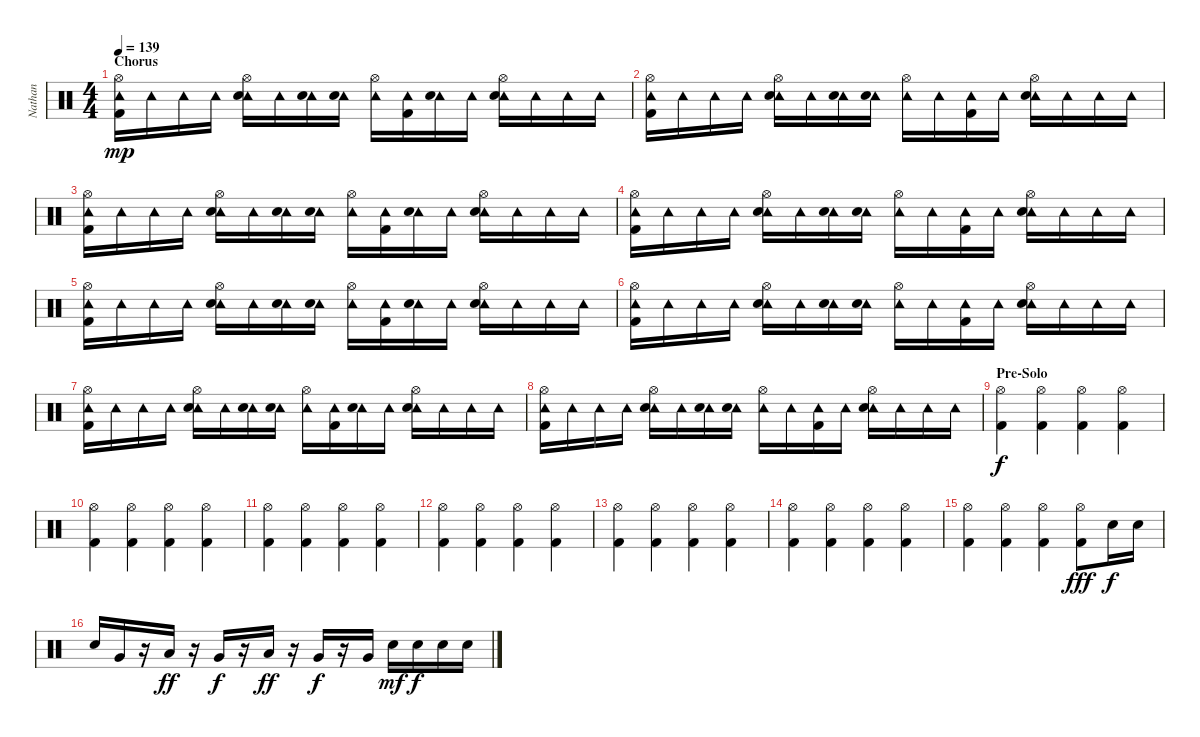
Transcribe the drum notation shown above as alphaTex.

\track ("Nathan" "Nathan") {instrument percussion}
\staff {score}
\articulation defaults
\ts (4 4)
\section ("" "Chorus")
\tempo 139
\clef neutral
\ks c
("Hi-Hat (open)" "Tambourine (hit)" "Kick (hit) 2").16{dy mp} "Tambourine (hit)".16 "Tambourine (hit)".16 "Tambourine (hit)".16 ("Hi-Hat (open)" "Tambourine (hit)" "Electric Snare (hit)").16 "Tambourine (hit)".16 ("Tambourine (hit)" "Electric Snare (hit)").16 ("Tambourine (hit)" "Electric Snare (hit)").16 ("Hi-Hat (open)" "Tambourine (hit)").16 ("Tambourine (hit)" "Kick (hit) 2").16 ("Tambourine (hit)" "Electric Snare (hit)").16 "Tambourine (hit)".16 ("Hi-Hat (open)" "Tambourine (hit)" "Electric Snare (hit)").16 "Tambourine (hit)".16 "Tambourine (hit)".16 "Tambourine (hit)".16 |
("Hi-Hat (open)" "Tambourine (hit)" "Kick (hit) 2").16 "Tambourine (hit)".16 "Tambourine (hit)".16 "Tambourine (hit)".16 ("Hi-Hat (open)" "Tambourine (hit)" "Electric Snare (hit)").16 "Tambourine (hit)".16 ("Tambourine (hit)" "Electric Snare (hit)").16 ("Tambourine (hit)" "Electric Snare (hit)").16 ("Hi-Hat (open)" "Tambourine (hit)").16 "Tambourine (hit)".16 ("Tambourine (hit)" "Kick (hit) 2").16 "Tambourine (hit)".16 ("Hi-Hat (open)" "Tambourine (hit)" "Electric Snare (hit)").16 "Tambourine (hit)".16 "Tambourine (hit)".16 "Tambourine (hit)".16 |
("Hi-Hat (open)" "Tambourine (hit)" "Kick (hit) 2").16 "Tambourine (hit)".16 "Tambourine (hit)".16 "Tambourine (hit)".16 ("Hi-Hat (open)" "Tambourine (hit)" "Electric Snare (hit)").16 "Tambourine (hit)".16 ("Tambourine (hit)" "Electric Snare (hit)").16 ("Tambourine (hit)" "Electric Snare (hit)").16 ("Hi-Hat (open)" "Tambourine (hit)").16 ("Tambourine (hit)" "Kick (hit) 2").16 ("Tambourine (hit)" "Electric Snare (hit)").16 "Tambourine (hit)".16 ("Hi-Hat (open)" "Tambourine (hit)" "Electric Snare (hit)").16 "Tambourine (hit)".16 "Tambourine (hit)".16 "Tambourine (hit)".16 |
("Hi-Hat (open)" "Tambourine (hit)" "Kick (hit) 2").16 "Tambourine (hit)".16 "Tambourine (hit)".16 "Tambourine (hit)".16 ("Hi-Hat (open)" "Tambourine (hit)" "Electric Snare (hit)").16 "Tambourine (hit)".16 ("Tambourine (hit)" "Electric Snare (hit)").16 ("Tambourine (hit)" "Electric Snare (hit)").16 ("Hi-Hat (open)" "Tambourine (hit)").16 "Tambourine (hit)".16 ("Tambourine (hit)" "Kick (hit) 2").16 "Tambourine (hit)".16 ("Hi-Hat (open)" "Tambourine (hit)" "Electric Snare (hit)").16 "Tambourine (hit)".16 "Tambourine (hit)".16 "Tambourine (hit)".16 |
("Hi-Hat (open)" "Tambourine (hit)" "Kick (hit) 2").16 "Tambourine (hit)".16 "Tambourine (hit)".16 "Tambourine (hit)".16 ("Hi-Hat (open)" "Tambourine (hit)" "Electric Snare (hit)").16 "Tambourine (hit)".16 ("Tambourine (hit)" "Electric Snare (hit)").16 ("Tambourine (hit)" "Electric Snare (hit)").16 ("Hi-Hat (open)" "Tambourine (hit)").16 ("Tambourine (hit)" "Kick (hit) 2").16 ("Tambourine (hit)" "Electric Snare (hit)").16 "Tambourine (hit)".16 ("Hi-Hat (open)" "Tambourine (hit)" "Electric Snare (hit)").16 "Tambourine (hit)".16 "Tambourine (hit)".16 "Tambourine (hit)".16 |
("Hi-Hat (open)" "Tambourine (hit)" "Kick (hit) 2").16 "Tambourine (hit)".16 "Tambourine (hit)".16 "Tambourine (hit)".16 ("Hi-Hat (open)" "Tambourine (hit)" "Electric Snare (hit)").16 "Tambourine (hit)".16 ("Tambourine (hit)" "Electric Snare (hit)").16 ("Tambourine (hit)" "Electric Snare (hit)").16 ("Hi-Hat (open)" "Tambourine (hit)").16 "Tambourine (hit)".16 ("Tambourine (hit)" "Kick (hit) 2").16 "Tambourine (hit)".16 ("Hi-Hat (open)" "Tambourine (hit)" "Electric Snare (hit)").16 "Tambourine (hit)".16 "Tambourine (hit)".16 "Tambourine (hit)".16 |
("Hi-Hat (open)" "Tambourine (hit)" "Kick (hit) 2").16 "Tambourine (hit)".16 "Tambourine (hit)".16 "Tambourine (hit)".16 ("Hi-Hat (open)" "Tambourine (hit)" "Electric Snare (hit)").16 "Tambourine (hit)".16 ("Tambourine (hit)" "Electric Snare (hit)").16 ("Tambourine (hit)" "Electric Snare (hit)").16 ("Hi-Hat (open)" "Tambourine (hit)").16 ("Tambourine (hit)" "Kick (hit) 2").16 ("Tambourine (hit)" "Electric Snare (hit)").16 "Tambourine (hit)".16 ("Hi-Hat (open)" "Tambourine (hit)" "Electric Snare (hit)").16 "Tambourine (hit)".16 "Tambourine (hit)".16 "Tambourine (hit)".16 |
("Hi-Hat (open)" "Tambourine (hit)" "Kick (hit) 2").16 "Tambourine (hit)".16 "Tambourine (hit)".16 "Tambourine (hit)".16 ("Hi-Hat (open)" "Tambourine (hit)" "Electric Snare (hit)").16 "Tambourine (hit)".16 ("Tambourine (hit)" "Electric Snare (hit)").16 ("Tambourine (hit)" "Electric Snare (hit)").16 ("Hi-Hat (open)" "Tambourine (hit)").16 "Tambourine (hit)".16 ("Tambourine (hit)" "Kick (hit) 2").16 "Tambourine (hit)".16 ("Hi-Hat (open)" "Tambourine (hit)" "Electric Snare (hit)").16 "Tambourine (hit)".16 "Tambourine (hit)".16 "Tambourine (hit)".16 |
\section ("" "Pre-Solo")
("Hi-Hat (open)" "Kick (hit) 2").4{dy f} ("Hi-Hat (open)" "Kick (hit) 2").4 ("Hi-Hat (open)" "Kick (hit) 2").4 ("Hi-Hat (open)" "Kick (hit) 2").4 |
("Hi-Hat (open)" "Kick (hit) 2").4 ("Hi-Hat (open)" "Kick (hit) 2").4 ("Hi-Hat (open)" "Kick (hit) 2").4 ("Hi-Hat (open)" "Kick (hit) 2").4 |
("Hi-Hat (open)" "Kick (hit) 2").4 ("Hi-Hat (open)" "Kick (hit) 2").4 ("Hi-Hat (open)" "Kick (hit) 2").4 ("Hi-Hat (open)" "Kick (hit) 2").4 |
("Hi-Hat (open)" "Kick (hit) 2").4 ("Hi-Hat (open)" "Kick (hit) 2").4 ("Hi-Hat (open)" "Kick (hit) 2").4 ("Hi-Hat (open)" "Kick (hit) 2").4 |
("Hi-Hat (open)" "Kick (hit) 2").4 ("Hi-Hat (open)" "Kick (hit) 2").4 ("Hi-Hat (open)" "Kick (hit) 2").4 ("Hi-Hat (open)" "Kick (hit) 2").4 |
("Hi-Hat (open)" "Kick (hit) 2").4{volume 16} ("Hi-Hat (open)" "Kick (hit) 2").4 ("Hi-Hat (open)" "Kick (hit) 2").4 ("Hi-Hat (open)" "Kick (hit) 2").4 |
("Hi-Hat (open)" "Kick (hit) 2").4 ("Hi-Hat (open)" "Kick (hit) 2").4 ("Hi-Hat (open)" "Kick (hit) 2").4 ("Hi-Hat (open)" "Kick (hit) 2").8{dy fff volume 13} "Electric Snare (hit)".16{dy f} "Electric Snare (hit)".16 |
"Electric Snare (hit)".16 "Very Low Tom (hit)".16 r.16 "Low Tom (hit)".16{dy ff} r.16 "Very Low Tom (hit)".16{dy f} r.16 "Low Tom (hit)".16{dy ff} r.16 "Very Low Tom (hit)".16{dy f} r.16 "Very Low Tom (hit)".16 "Electric Snare (hit)".16{dy mf} "Electric Snare (hit)".16{dy f} "Electric Snare (hit)".16 "Electric Snare (hit)".16
